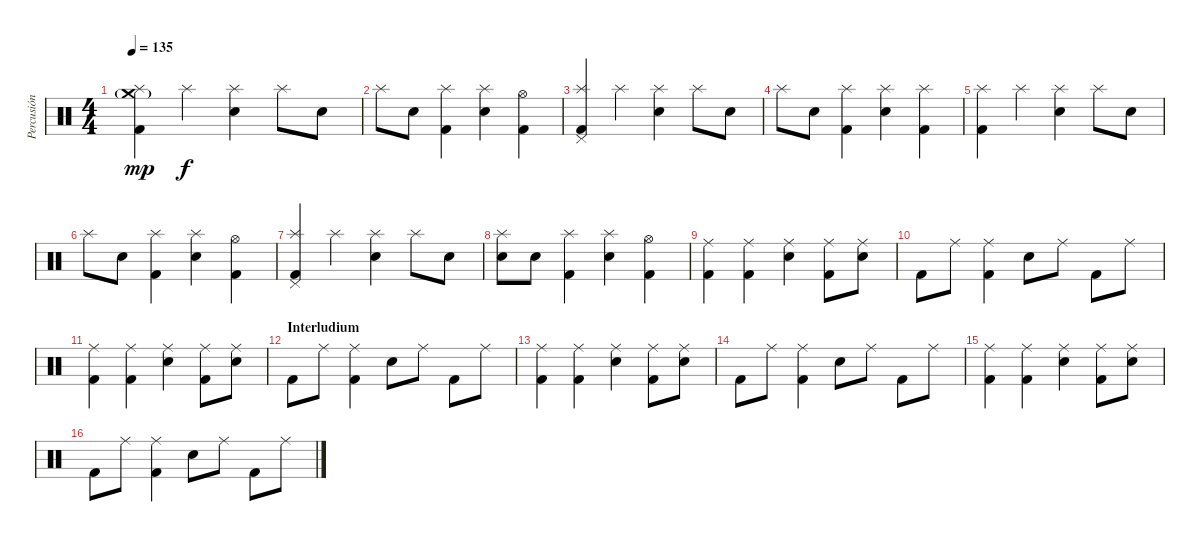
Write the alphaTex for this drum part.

\track ("Percusión" "Percusión") {instrument percussion}
\staff {score}
\articulation defaults
\ts (4 4)
\tempo 135
\clef neutral
\ks c
("Kick (hit) 2" "Splash (hit)" "Crash medium (hit)"{g}).4{dy mp} "Splash (hit)".4{dy f} ("Snare (hit) 2" "Splash (hit)").4 "Splash (hit)".8 "Snare (hit) 2".8 |
"Splash (hit)".8 "Snare (hit) 2".8 ("Kick (hit) 2" "Splash (hit)").4 ("Snare (hit) 2" "Splash (hit)").4 ("Kick (hit) 2" "Hi-Hat (open)").4 |
("Kick (hit) 2" "Pedal Hi-Hat (hit)" "Splash (hit)").4 "Splash (hit)".4 ("Snare (hit) 2" "Splash (hit)").4 "Splash (hit)".8 "Snare (hit) 2".8 |
"Splash (hit)".8 "Snare (hit) 2".8 ("Kick (hit) 2" "Splash (hit)").4 ("Snare (hit) 2" "Splash (hit)").4 ("Kick (hit) 2" "Splash (hit)").4 |
("Kick (hit) 2" "Splash (hit)").4 "Splash (hit)".4 ("Snare (hit) 2" "Splash (hit)").4 "Splash (hit)".8 "Snare (hit) 2".8 |
"Splash (hit)".8 "Snare (hit) 2".8 ("Kick (hit) 2" "Splash (hit)").4 ("Snare (hit) 2" "Splash (hit)").4 ("Kick (hit) 2" "Hi-Hat (open)").4 |
("Kick (hit) 2" "Pedal Hi-Hat (hit)" "Splash (hit)").4 "Splash (hit)".4 ("Snare (hit) 2" "Splash (hit)").4 "Splash (hit)".8 "Snare (hit) 2".8 |
("Snare (hit)" "Splash (hit)").8 "Snare (hit) 2".8 ("Kick (hit) 2" "Splash (hit)").4 ("Snare (hit) 2" "Splash (hit)").4 ("Kick (hit) 2" "Hi-Hat (open)").4 |
("Kick (hit) 2" "Ride (middle)").4 ("Kick (hit) 2" "Ride (middle)").4 ("Ride (middle)" "Snare (hit) 2").4 ("Kick (hit) 2" "Ride (middle)").8 ("Snare (hit) 2" "Ride (middle)").8 |
"Kick (hit) 2".8 "Ride (middle)".8 ("Kick (hit) 2" "Ride (middle)").4 "Snare (hit) 2".8 "Ride (middle)".8 "Kick (hit) 2".8 "Ride (middle)".8 |
("Kick (hit) 2" "Ride (middle)").4 ("Kick (hit) 2" "Ride (middle)").4 ("Ride (middle)" "Snare (hit) 2").4 ("Kick (hit) 2" "Ride (middle)").8 ("Snare (hit) 2" "Ride (middle)").8 |
\section ("" "Interludium")
"Kick (hit) 2".8 "Ride (middle)".8 ("Kick (hit) 2" "Ride (middle)").4 "Snare (hit) 2".8 "Ride (middle)".8 "Kick (hit) 2".8 "Ride (middle)".8 |
("Kick (hit) 2" "Ride (middle)").4 ("Kick (hit) 2" "Ride (middle)").4 ("Ride (middle)" "Snare (hit) 2").4 ("Kick (hit) 2" "Ride (middle)").8 ("Snare (hit) 2" "Ride (middle)").8 |
"Kick (hit) 2".8 "Ride (middle)".8 ("Kick (hit) 2" "Ride (middle)").4 "Snare (hit) 2".8 "Ride (middle)".8 "Kick (hit) 2".8 "Ride (middle)".8 |
("Kick (hit) 2" "Ride (middle)").4 ("Kick (hit) 2" "Ride (middle)").4 ("Ride (middle)" "Snare (hit) 2").4 ("Kick (hit) 2" "Ride (middle)").8 ("Snare (hit) 2" "Ride (middle)").8 |
"Kick (hit) 2".8 "Ride (middle)".8 ("Kick (hit) 2" "Ride (middle)").4 "Snare (hit) 2".8 "Ride (middle)".8 "Kick (hit) 2".8 "Ride (middle)".8
